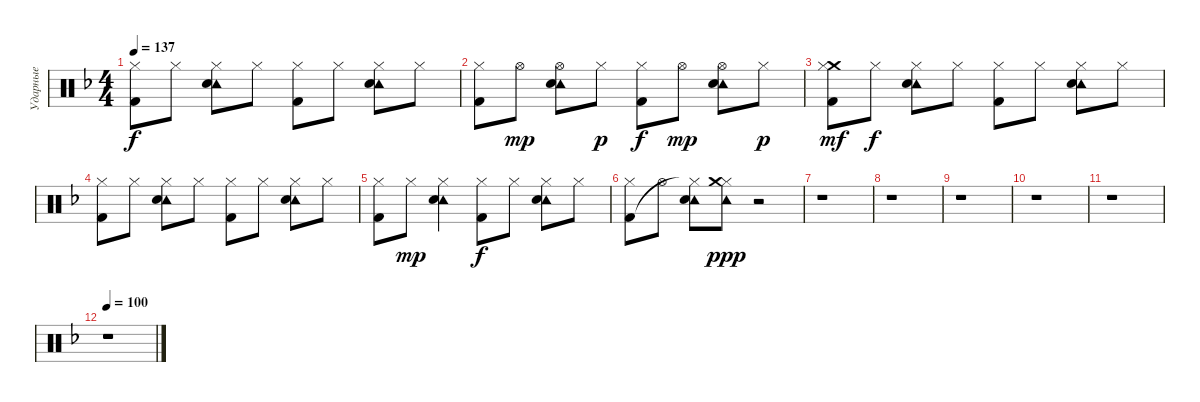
\track ("Ударные" "Ударные") {instrument percussion}
\staff {score}
\articulation defaults
\ts (4 4)
\tempo 137
\clef neutral
\ks dminor
("Hi-Hat (closed)" "Kick (hit) 2").8{dy f} "Hi-Hat (closed)".8 ("Tambourine (hit)" "Hi-Hat (closed)" "Electric Snare (hit)").8 "Hi-Hat (closed)".8 ("Hi-Hat (closed)" "Kick (hit) 2").8 "Hi-Hat (closed)".8 ("Tambourine (hit)" "Hi-Hat (closed)" "Electric Snare (hit)").8 "Hi-Hat (closed)".8 |
("Hi-Hat (closed)" "Kick (hit) 2").8 "Hi-Hat (open)".8{dy mp} ("Tambourine (hit)" "Hi-Hat (open)" "Electric Snare (hit)").8 "Hi-Hat (closed)".8{dy p} ("Hi-Hat (closed)" "Kick (hit) 2").8{dy f} "Hi-Hat (open)".8{dy mp} ("Tambourine (hit)" "Hi-Hat (open)" "Electric Snare (hit)").8 "Hi-Hat (closed)".8{dy p} |
("Crash medium (hit)" "Hi-Hat (closed)" "Kick (hit) 2").8{dy mf} "Hi-Hat (closed)".8{dy f} ("Tambourine (hit)" "Hi-Hat (closed)" "Electric Snare (hit)").8 "Hi-Hat (closed)".8 ("Hi-Hat (closed)" "Kick (hit) 2").8 "Hi-Hat (closed)".8 ("Tambourine (hit)" "Hi-Hat (closed)" "Electric Snare (hit)").8 "Hi-Hat (closed)".8 |
("Hi-Hat (closed)" "Kick (hit) 2").8 "Hi-Hat (closed)".8 ("Tambourine (hit)" "Hi-Hat (closed)" "Electric Snare (hit)").8 "Hi-Hat (closed)".8 ("Hi-Hat (closed)" "Kick (hit) 2").8 "Hi-Hat (closed)".8 ("Tambourine (hit)" "Hi-Hat (closed)" "Electric Snare (hit)").8 "Hi-Hat (closed)".8 |
("Hi-Hat (closed)" "Kick (hit) 2").8 "Hi-Hat (closed)".8{dy mp} ("Tambourine (hit)" "Hi-Hat (closed)" "Electric Snare (hit)").4 ("Hi-Hat (closed)" "Kick (hit) 2").8{dy f} "Hi-Hat (closed)".8 ("Tambourine (hit)" "Hi-Hat (closed)" "Electric Snare (hit)").8 "Hi-Hat (closed)".8 |
("Hi-Hat (closed)" "Kick (hit) 2").8 "Hi-Hat (open)".8 ("Tambourine (hit)" "Hi-Hat (closed)"{t} "Electric Snare (hit)").8 ("Tambourine (hit)" "Hi-Hat (closed)" "Crash medium (hit)").8{dy ppp} r.2 |
r.1 |
r.1 |
r.1 |
r.1 |
r.1 |
\tempo 100
r.1
